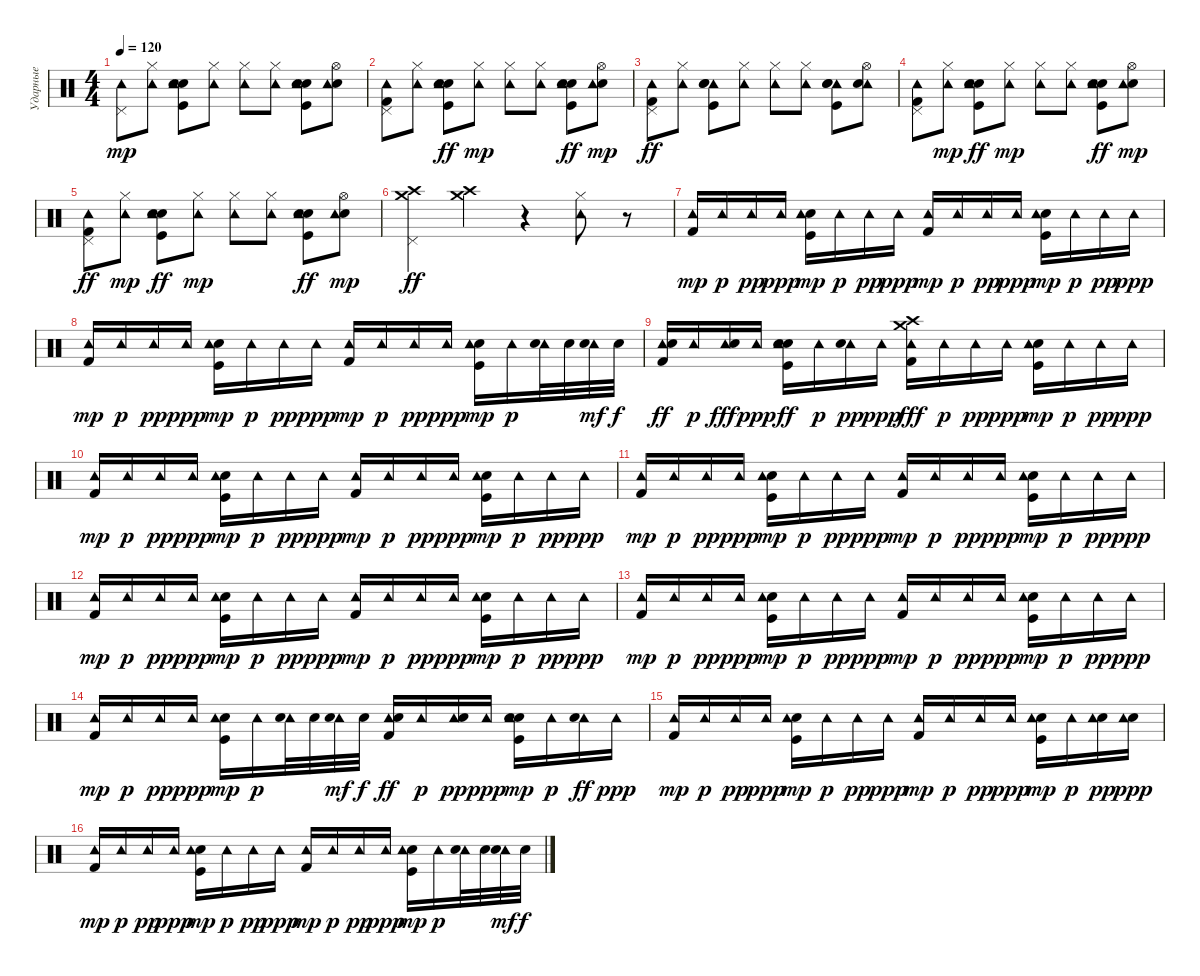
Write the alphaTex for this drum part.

\track ("Ударные" "Ударные") {instrument percussion}
\staff {score}
\articulation defaults
\ts (4 4)
\tempo 120
\clef neutral
\ks c
("Pedal Hi-Hat (hit)" "Tambourine (hit)").8{dy mp} ("Hi-Hat (closed)" "Tambourine (hit)").8 ("Electric Snare (hit)" "Kick (hit)" "Snare (hit) 2" "Tambourine (hit)").8 ("Hi-Hat (closed)" "Tambourine (hit)").8 ("Hi-Hat (closed)" "Tambourine (hit)").8 ("Hi-Hat (closed)" "Tambourine (hit)").8 ("Electric Snare (hit)" "Kick (hit)" "Snare (hit) 2" "Tambourine (hit)").8 ("Electric Snare (hit)" "Hi-Hat (open)" "Tambourine (hit)").8 |
("Pedal Hi-Hat (hit)" "Kick (hit) 2" "Tambourine (hit)").8 ("Hi-Hat (closed)" "Tambourine (hit)").8 ("Electric Snare (hit)" "Tambourine (hit)" "Kick (hit)" "Snare (hit) 2").8{dy ff} ("Hi-Hat (closed)" "Tambourine (hit)").8{dy mp} ("Hi-Hat (closed)" "Tambourine (hit)").8 ("Hi-Hat (closed)" "Tambourine (hit)").8 ("Electric Snare (hit)" "Tambourine (hit)" "Kick (hit)" "Snare (hit) 2").8{dy ff} ("Electric Snare (hit)" "Hi-Hat (open)" "Tambourine (hit)").8{dy mp} |
("Kick (hit) 2" "Tambourine (hit)" "Pedal Hi-Hat (hit)").8{dy ff} ("Tambourine (hit)" "Hi-Hat (closed)").8 ("Tambourine (hit)" "Kick (hit)" "Snare (hit) 2" "Electric Snare (hit)").8 ("Tambourine (hit)" "Hi-Hat (closed)").8 ("Tambourine (hit)" "Hi-Hat (closed)").8 ("Tambourine (hit)" "Hi-Hat (closed)").8 ("Tambourine (hit)" "Kick (hit)" "Snare (hit) 2" "Electric Snare (hit)").8 ("Tambourine (hit)" "Electric Snare (hit)" "Hi-Hat (open)").8 |
("Pedal Hi-Hat (hit)" "Tambourine (hit)" "Kick (hit) 2").8 ("Hi-Hat (closed)" "Tambourine (hit)").8{dy mp} ("Electric Snare (hit)" "Tambourine (hit)" "Kick (hit)" "Snare (hit) 2").8{dy ff} ("Hi-Hat (closed)" "Tambourine (hit)").8{dy mp} ("Hi-Hat (closed)" "Tambourine (hit)").8 ("Hi-Hat (closed)" "Tambourine (hit)").8 ("Electric Snare (hit)" "Tambourine (hit)" "Kick (hit)" "Snare (hit) 2").8{dy ff} ("Electric Snare (hit)" "Hi-Hat (open)" "Tambourine (hit)").8{dy mp} |
("Pedal Hi-Hat (hit)" "Tambourine (hit)" "Kick (hit) 2").8{dy ff} ("Hi-Hat (closed)" "Tambourine (hit)").8{dy mp} ("Electric Snare (hit)" "Tambourine (hit)" "Kick (hit)" "Snare (hit) 2").8{dy ff} ("Hi-Hat (closed)" "Tambourine (hit)").8{dy mp} ("Hi-Hat (closed)" "Tambourine (hit)").8 ("Hi-Hat (closed)" "Tambourine (hit)").8 ("Electric Snare (hit)" "Tambourine (hit)" "Kick (hit)" "Snare (hit) 2").8{dy ff} ("Hi-Hat (open)" "Electric Snare (hit)" "Tambourine (hit)").8{dy mp} |
("Pedal Hi-Hat (hit)" "Crash high (hit)" "Crash medium (hit)").4{dy ff} ("Crash high (hit)" "Crash medium (hit)").4 r.4 ("Hi-Hat (closed)" "Tambourine (hit)").8 r.8 |
("Kick (hit) 2" "Tambourine (hit)").16{dy mp} "Tambourine (hit)".16{dy p} "Tambourine (hit)".16{dy pp} "Tambourine (hit)".16{dy ppp} ("Kick (hit)" "Snare (hit) 2" "Tambourine (hit)").16{dy mp} "Tambourine (hit)".16{dy p} "Tambourine (hit)".16{dy pp} "Tambourine (hit)".16{dy ppp} ("Kick (hit) 2" "Tambourine (hit)").16{dy mp} "Tambourine (hit)".16{dy p} "Tambourine (hit)".16{dy pp} "Tambourine (hit)".16{dy ppp} ("Kick (hit)" "Snare (hit) 2" "Tambourine (hit)").16{dy mp} "Tambourine (hit)".16{dy p} "Tambourine (hit)".16{dy pp} "Tambourine (hit)".16{dy ppp} |
("Kick (hit) 2" "Tambourine (hit)").16{dy mp} "Tambourine (hit)".16{dy p} "Tambourine (hit)".16{dy pp} "Tambourine (hit)".16{dy ppp} ("Kick (hit)" "Snare (hit) 2" "Tambourine (hit)").16{dy mp} "Tambourine (hit)".16{dy p} "Tambourine (hit)".16{dy pp} "Tambourine (hit)".16{dy ppp} ("Kick (hit) 2" "Tambourine (hit)").16{dy mp} "Tambourine (hit)".16{dy p} "Tambourine (hit)".16{dy pp} "Tambourine (hit)".16{dy ppp} ("Kick (hit)" "Snare (hit) 2" "Tambourine (hit)").16{dy mp} "Tambourine (hit)".16{dy p} ("Tambourine (hit)" "Electric Snare (hit)").32 "Electric Snare (hit)".32 ("Tambourine (hit)" "Electric Snare (hit)").32{dy mf} "Electric Snare (hit)".32{dy f} |
("Kick (hit) 2" "Tambourine (hit)" "Electric Snare (hit)").16{dy ff} "Tambourine (hit)".16{dy p} ("Tambourine (hit)" "Electric Snare (hit)").16{dy fff} "Tambourine (hit)".16{dy ppp} ("Kick (hit)" "Snare (hit) 2" "Tambourine (hit)" "Electric Snare (hit)").16{dy ff} "Tambourine (hit)".16{dy p} ("Tambourine (hit)" "Electric Snare (hit)").16{dy pp} "Tambourine (hit)".16{dy ppp} ("Crash medium (hit)" "Kick (hit) 2" "Tambourine (hit)" "Crash high (hit)").16{dy fff} "Tambourine (hit)".16{dy p} "Tambourine (hit)".16{dy pp} "Tambourine (hit)".16{dy ppp} ("Kick (hit)" "Snare (hit) 2" "Tambourine (hit)").16{dy mp} "Tambourine (hit)".16{dy p} "Tambourine (hit)".16{dy pp} "Tambourine (hit)".16{dy ppp} |
("Kick (hit) 2" "Tambourine (hit)").16{dy mp} "Tambourine (hit)".16{dy p} "Tambourine (hit)".16{dy pp} "Tambourine (hit)".16{dy ppp} ("Kick (hit)" "Snare (hit) 2" "Tambourine (hit)").16{dy mp} "Tambourine (hit)".16{dy p} "Tambourine (hit)".16{dy pp} "Tambourine (hit)".16{dy ppp} ("Kick (hit) 2" "Tambourine (hit)").16{dy mp} "Tambourine (hit)".16{dy p} "Tambourine (hit)".16{dy pp} "Tambourine (hit)".16{dy ppp} ("Kick (hit)" "Snare (hit) 2" "Tambourine (hit)").16{dy mp} "Tambourine (hit)".16{dy p} "Tambourine (hit)".16{dy pp} "Tambourine (hit)".16{dy ppp} |
("Kick (hit) 2" "Tambourine (hit)").16{dy mp} "Tambourine (hit)".16{dy p} "Tambourine (hit)".16{dy pp} "Tambourine (hit)".16{dy ppp} ("Kick (hit)" "Snare (hit) 2" "Tambourine (hit)").16{dy mp} "Tambourine (hit)".16{dy p} "Tambourine (hit)".16{dy pp} "Tambourine (hit)".16{dy ppp} ("Kick (hit) 2" "Tambourine (hit)").16{dy mp} "Tambourine (hit)".16{dy p} "Tambourine (hit)".16{dy pp} "Tambourine (hit)".16{dy ppp} ("Kick (hit)" "Snare (hit) 2" "Tambourine (hit)").16{dy mp} "Tambourine (hit)".16{dy p} "Tambourine (hit)".16{dy pp} "Tambourine (hit)".16{dy ppp} |
("Kick (hit) 2" "Tambourine (hit)").16{dy mp} "Tambourine (hit)".16{dy p} "Tambourine (hit)".16{dy pp} "Tambourine (hit)".16{dy ppp} ("Kick (hit)" "Snare (hit) 2" "Tambourine (hit)").16{dy mp} "Tambourine (hit)".16{dy p} "Tambourine (hit)".16{dy pp} "Tambourine (hit)".16{dy ppp} ("Kick (hit) 2" "Tambourine (hit)").16{dy mp} "Tambourine (hit)".16{dy p} "Tambourine (hit)".16{dy pp} "Tambourine (hit)".16{dy ppp} ("Kick (hit)" "Snare (hit) 2" "Tambourine (hit)").16{dy mp} "Tambourine (hit)".16{dy p} "Tambourine (hit)".16{dy pp} "Tambourine (hit)".16{dy ppp} |
("Kick (hit) 2" "Tambourine (hit)").16{dy mp} "Tambourine (hit)".16{dy p} "Tambourine (hit)".16{dy pp} "Tambourine (hit)".16{dy ppp} ("Kick (hit)" "Snare (hit) 2" "Tambourine (hit)").16{dy mp} "Tambourine (hit)".16{dy p} "Tambourine (hit)".16{dy pp} "Tambourine (hit)".16{dy ppp} ("Kick (hit) 2" "Tambourine (hit)").16{dy mp} "Tambourine (hit)".16{dy p} "Tambourine (hit)".16{dy pp} "Tambourine (hit)".16{dy ppp} ("Kick (hit)" "Snare (hit) 2" "Tambourine (hit)").16{dy mp} "Tambourine (hit)".16{dy p} "Tambourine (hit)".16{dy pp} "Tambourine (hit)".16{dy ppp} |
("Kick (hit) 2" "Tambourine (hit)").16{dy mp} "Tambourine (hit)".16{dy p} "Tambourine (hit)".16{dy pp} "Tambourine (hit)".16{dy ppp} ("Kick (hit)" "Snare (hit) 2" "Tambourine (hit)").16{dy mp} "Tambourine (hit)".16{dy p} ("Tambourine (hit)" "Electric Snare (hit)").32 "Electric Snare (hit)".32 ("Tambourine (hit)" "Electric Snare (hit)").32{dy mf} "Electric Snare (hit)".32{dy f} ("Kick (hit) 2" "Tambourine (hit)" "Electric Snare (hit)").16{dy ff} "Tambourine (hit)".16{dy p} ("Tambourine (hit)" "Electric Snare (hit)").16{dy pp} "Tambourine (hit)".16{dy ppp} ("Kick (hit)" "Snare (hit) 2" "Tambourine (hit)" "Electric Snare (hit)").16{dy mp} "Tambourine (hit)".16{dy p} ("Tambourine (hit)" "Electric Snare (hit)").16{dy ff} "Tambourine (hit)".16{dy ppp} |
("Kick (hit) 2" "Tambourine (hit)").16{dy mp} "Tambourine (hit)".16{dy p} "Tambourine (hit)".16{dy pp} "Tambourine (hit)".16{dy ppp} ("Kick (hit)" "Snare (hit) 2" "Tambourine (hit)").16{dy mp} "Tambourine (hit)".16{dy p} "Tambourine (hit)".16{dy pp} "Tambourine (hit)".16{dy ppp} ("Kick (hit) 2" "Tambourine (hit)").16{dy mp} "Tambourine (hit)".16{dy p} "Tambourine (hit)".16{dy pp} "Tambourine (hit)".16{dy ppp} ("Kick (hit)" "Snare (hit) 2" "Tambourine (hit)").16{dy mp} "Tambourine (hit)".16{dy p} ("Electric Snare (hit)" "Tambourine (hit)").16{dy pp} ("Electric Snare (hit)" "Tambourine (hit)").16{dy ppp} |
("Kick (hit) 2" "Tambourine (hit)").16{dy mp} "Tambourine (hit)".16{dy p} "Tambourine (hit)".16{dy pp} "Tambourine (hit)".16{dy ppp} ("Kick (hit)" "Snare (hit) 2" "Tambourine (hit)").16{dy mp} "Tambourine (hit)".16{dy p} "Tambourine (hit)".16{dy pp} "Tambourine (hit)".16{dy ppp} ("Kick (hit) 2" "Tambourine (hit)").16{dy mp} "Tambourine (hit)".16{dy p} "Tambourine (hit)".16{dy pp} "Tambourine (hit)".16{dy ppp} ("Kick (hit)" "Snare (hit) 2" "Tambourine (hit)").16{dy mp} "Tambourine (hit)".16{dy p} ("Tambourine (hit)" "Electric Snare (hit)").32 "Electric Snare (hit)".32 ("Tambourine (hit)" "Electric Snare (hit)").32{dy mf} "Electric Snare (hit)".32{dy f}
